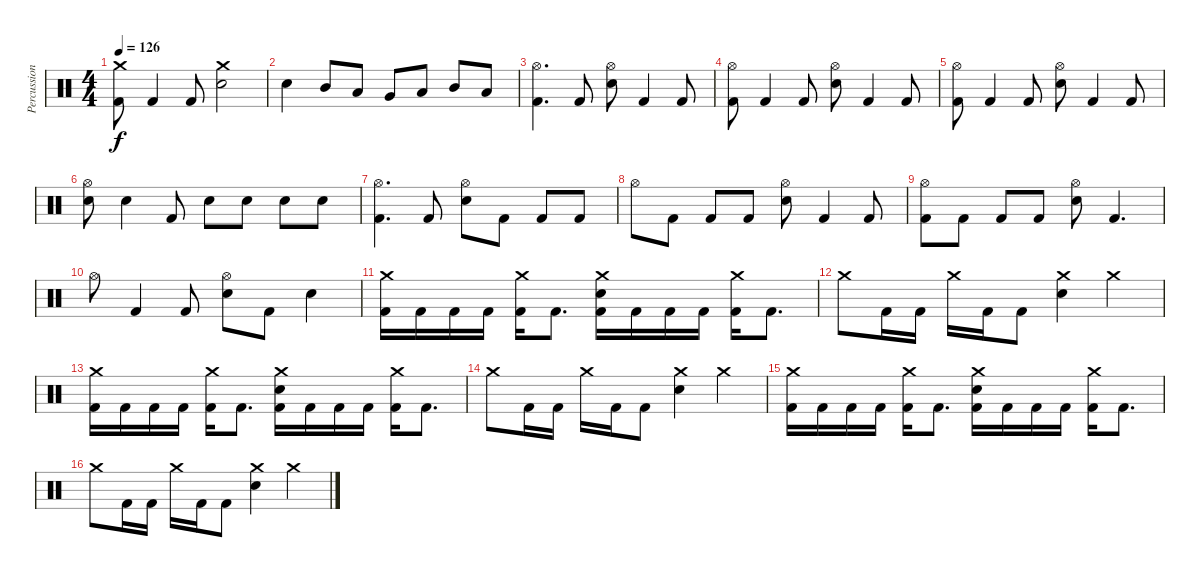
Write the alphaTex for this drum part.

\track ("Percussion" "Percussion") {instrument percussion}
\staff {score}
\articulation defaults
\ts (4 4)
\tempo 126
\clef neutral
\ks c
("Crash medium (hit)" "Kick (hit) 2").8{dy f} "Kick (hit) 2".4 "Kick (hit) 2".8 ("Crash medium (hit)" "Electric Snare (hit)").2 |
"Electric Snare (hit)".4 "Mid Tom (hit)".8 "Low Tom (hit)".8 "Very Low Tom (hit)".8 "Low Floor Tom (hit)".8 "Mid Tom (hit)".8 "Low Tom (hit)".8 |
("Hi-Hat (open)" "Kick (hit) 2").4{d} "Kick (hit) 2".8 ("Hi-Hat (open)" "Electric Snare (hit)").8 "Kick (hit) 2".4 "Kick (hit) 2".8 |
("Hi-Hat (open)" "Kick (hit) 2").8 "Kick (hit) 2".4 "Kick (hit) 2".8 ("Hi-Hat (open)" "Electric Snare (hit)").8 "Kick (hit) 2".4 "Kick (hit) 2".8 |
("Hi-Hat (open)" "Kick (hit) 2").8 "Kick (hit) 2".4 "Kick (hit) 2".8 ("Hi-Hat (open)" "Electric Snare (hit)").8 "Kick (hit) 2".4 "Kick (hit) 2".8 |
("Hi-Hat (open)" "Electric Snare (hit)").8 "Electric Snare (hit)".4 "Kick (hit) 2".8 "Electric Snare (hit)".8 "Electric Snare (hit)".8 "Electric Snare (hit)".8 "Electric Snare (hit)".8 |
("Hi-Hat (open)" "Kick (hit) 2").4{d} "Kick (hit) 2".8 ("Hi-Hat (open)" "Electric Snare (hit)").8 "Kick (hit) 2".8 "Kick (hit) 2".8 "Kick (hit) 2".8 |
"Hi-Hat (open)".8 "Kick (hit) 2".8 "Kick (hit) 2".8 "Kick (hit) 2".8 ("Hi-Hat (open)" "Electric Snare (hit)").8 "Kick (hit) 2".4 "Kick (hit) 2".8 |
("Hi-Hat (open)" "Kick (hit) 2").8 "Kick (hit) 2".8 "Kick (hit) 2".8 "Kick (hit) 2".8 ("Hi-Hat (open)" "Electric Snare (hit)").8 "Kick (hit) 2".4{d} |
"Hi-Hat (open)".8 "Kick (hit) 2".4 "Kick (hit) 2".8 ("Hi-Hat (open)" "Electric Snare (hit)").8 "Kick (hit) 2".8 "Electric Snare (hit)".4 |
("Crash medium (hit)" "Kick (hit) 2").16 "Kick (hit) 2".16 "Kick (hit) 2".16 "Kick (hit) 2".16 ("Crash medium (hit)" "Kick (hit) 2").16 "Kick (hit) 2".8{d} ("Crash medium (hit)" "Electric Snare (hit)" "Kick (hit) 2").16 "Kick (hit) 2".16 "Kick (hit) 2".16 "Kick (hit) 2".16 ("Crash medium (hit)" "Kick (hit) 2").16 "Kick (hit) 2".8{d} |
"Crash medium (hit)".8 "Kick (hit) 2".16 "Kick (hit) 2".16 "Crash medium (hit)".16 "Kick (hit) 2".16 "Kick (hit) 2".8 ("Crash medium (hit)" "Electric Snare (hit)").4 "Crash medium (hit)".4 |
("Crash medium (hit)" "Kick (hit) 2").16 "Kick (hit) 2".16 "Kick (hit) 2".16 "Kick (hit) 2".16 ("Crash medium (hit)" "Kick (hit) 2").16 "Kick (hit) 2".8{d} ("Crash medium (hit)" "Electric Snare (hit)" "Kick (hit) 2").16 "Kick (hit) 2".16 "Kick (hit) 2".16 "Kick (hit) 2".16 ("Crash medium (hit)" "Kick (hit) 2").16 "Kick (hit) 2".8{d} |
"Crash medium (hit)".8 "Kick (hit) 2".16 "Kick (hit) 2".16 "Crash medium (hit)".16 "Kick (hit) 2".16 "Kick (hit) 2".8 ("Crash medium (hit)" "Electric Snare (hit)").4 "Crash medium (hit)".4 |
("Crash medium (hit)" "Kick (hit) 2").16 "Kick (hit) 2".16 "Kick (hit) 2".16 "Kick (hit) 2".16 ("Crash medium (hit)" "Kick (hit) 2").16 "Kick (hit) 2".8{d} ("Crash medium (hit)" "Electric Snare (hit)" "Kick (hit) 2").16 "Kick (hit) 2".16 "Kick (hit) 2".16 "Kick (hit) 2".16 ("Crash medium (hit)" "Kick (hit) 2").16 "Kick (hit) 2".8{d} |
"Crash medium (hit)".8 "Kick (hit) 2".16 "Kick (hit) 2".16 "Crash medium (hit)".16 "Kick (hit) 2".16 "Kick (hit) 2".8 ("Crash medium (hit)" "Electric Snare (hit)").4 "Crash medium (hit)".4
